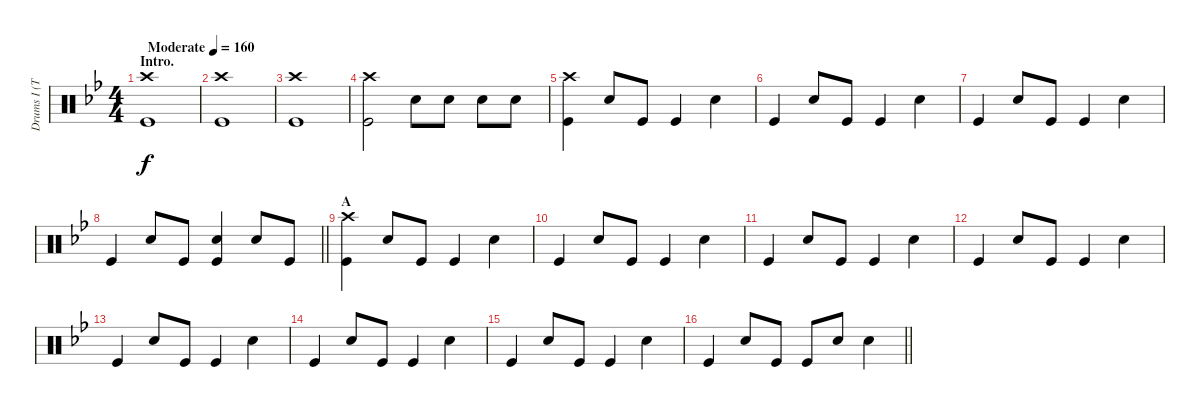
\track ("Drums I (Tainaka Ritsu)" "Drums I (T") {instrument percussion}
\staff {score}
\articulation defaults
\ts (4 4)
\section ("" "Intro.")
\tempo (160 "Moderate")
\clef neutral
\ks bb
("Crash high (hit)" "Kick (hit)").1{dy f} |
("Crash high (hit)" "Kick (hit)").1 |
("Crash high (hit)" "Kick (hit)").1 |
("Crash high (hit)" "Kick (hit)").2 "Snare (hit) 2".8 "Snare (hit) 2".8 "Snare (hit) 2".8 "Snare (hit) 2".8 |
("Crash high (hit)" "Kick (hit)").4 "Snare (hit) 2".8 "Kick (hit)".8 "Kick (hit)".4 "Snare (hit) 2".4 |
"Kick (hit)".4 "Snare (hit) 2".8 "Kick (hit)".8 "Kick (hit)".4 "Snare (hit) 2".4 |
"Kick (hit)".4 "Snare (hit) 2".8 "Kick (hit)".8 "Kick (hit)".4 "Snare (hit) 2".4 |
\barLineRight lightlight "Kick (hit)".4 "Snare (hit) 2".8 "Kick (hit)".8
("Snare (hit) 2" "Kick (hit)").4 "Snare (hit) 2".8 "Kick (hit)".8 |
\section ("" "A")
("Crash high (hit)" "Kick (hit)").4 "Snare (hit) 2".8 "Kick (hit)".8 "Kick (hit)".4 "Snare (hit) 2".4 |
"Kick (hit)".4 "Snare (hit) 2".8 "Kick (hit)".8 "Kick (hit)".4 "Snare (hit) 2".4 |
"Kick (hit)".4 "Snare (hit) 2".8 "Kick (hit)".8 "Kick (hit)".4 "Snare (hit) 2".4 |
"Kick (hit)".4 "Snare (hit) 2".8 "Kick (hit)".8 "Kick (hit)".4 "Snare (hit) 2".4 |
"Kick (hit)".4 "Snare (hit) 2".8 "Kick (hit)".8 "Kick (hit)".4 "Snare (hit) 2".4 |
"Kick (hit)".4 "Snare (hit) 2".8 "Kick (hit)".8 "Kick (hit)".4 "Snare (hit) 2".4 |
"Kick (hit)".4 "Snare (hit) 2".8 "Kick (hit)".8 "Kick (hit)".4 "Snare (hit) 2".4 |
\barLineRight lightlight "Kick (hit)".4 "Snare (hit) 2".8 "Kick (hit)".8 "Kick (hit)".8 "Snare (hit) 2".8 "Snare (hit) 2".4
